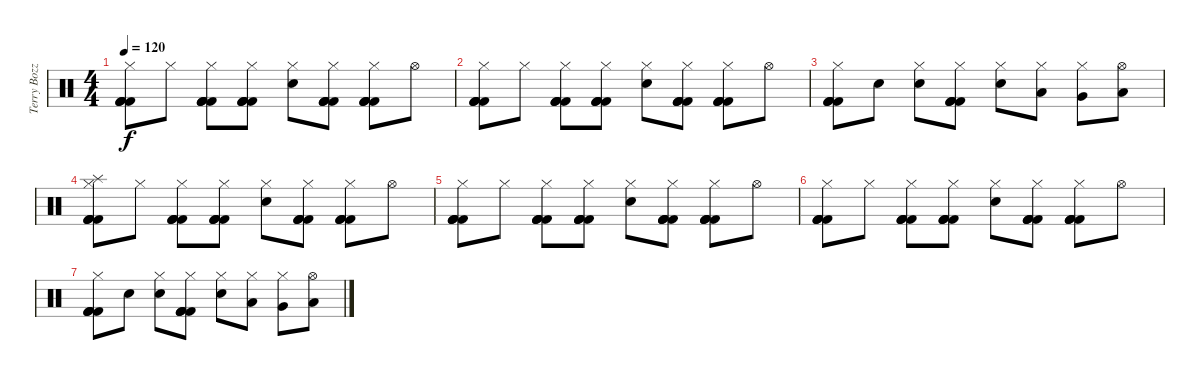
\track ("Terry Bozzio" "Terry Bozz") {instrument percussion}
\staff {score}
\articulation defaults
\ts (4 4)
\tempo 120
\clef neutral
\ks c
("Hi-Hat (closed)" "Kick (hit) 2" "Kick (hit) 2" "Kick (hit) 2" "Kick (hit) 2").8{dy f} "Hi-Hat (closed)".8 ("Hi-Hat (closed)" "Kick (hit) 2" "Kick (hit) 2" "Kick (hit) 2" "Kick (hit) 2").8 ("Hi-Hat (closed)" "Kick (hit) 2" "Kick (hit) 2" "Kick (hit) 2" "Kick (hit) 2").8 ("Hi-Hat (closed)" "Snare (hit) 2").8 ("Hi-Hat (closed)" "Kick (hit) 2" "Kick (hit) 2" "Kick (hit) 2" "Kick (hit) 2").8 ("Hi-Hat (closed)" "Kick (hit) 2" "Kick (hit) 2" "Kick (hit) 2" "Kick (hit) 2").8 "Hi-Hat (open)".8 |
("Hi-Hat (closed)" "Kick (hit) 2" "Kick (hit) 2" "Kick (hit) 2" "Kick (hit) 2").8 "Hi-Hat (closed)".8 ("Hi-Hat (closed)" "Kick (hit) 2" "Kick (hit) 2" "Kick (hit) 2" "Kick (hit) 2").8 ("Hi-Hat (closed)" "Kick (hit) 2" "Kick (hit) 2" "Kick (hit) 2" "Kick (hit) 2").8 ("Hi-Hat (closed)" "Snare (hit) 2").8 ("Hi-Hat (closed)" "Kick (hit) 2" "Kick (hit) 2" "Kick (hit) 2" "Kick (hit) 2").8 ("Hi-Hat (closed)" "Kick (hit) 2" "Kick (hit) 2" "Kick (hit) 2" "Kick (hit) 2").8 "Hi-Hat (open)".8 |
("Hi-Hat (closed)" "Kick (hit) 2" "Kick (hit) 2" "Kick (hit) 2" "Kick (hit) 2").8 "Snare (hit) 2".8 ("Hi-Hat (closed)" "Snare (hit) 2").8 ("Hi-Hat (closed)" "Kick (hit) 2" "Kick (hit) 2" "Kick (hit) 2" "Kick (hit) 2").8 ("Hi-Hat (closed)" "Snare (hit) 2").8 ("Hi-Hat (closed)" "Low Tom (hit)").8 ("Hi-Hat (closed)" "Very Low Tom (hit)").8 ("Hi-Hat (open)" "Low Floor Tom (hit)").8 |
("Splash (hit)" "Hi-Hat (closed)" "Kick (hit) 2" "Kick (hit) 2" "Kick (hit) 2" "Kick (hit) 2").8{volume 16} "Hi-Hat (closed)".8 ("Hi-Hat (closed)" "Kick (hit) 2" "Kick (hit) 2" "Kick (hit) 2" "Kick (hit) 2").8 ("Hi-Hat (closed)" "Kick (hit) 2" "Kick (hit) 2" "Kick (hit) 2" "Kick (hit) 2").8 ("Hi-Hat (closed)" "Snare (hit) 2").8 ("Hi-Hat (closed)" "Kick (hit) 2" "Kick (hit) 2" "Kick (hit) 2" "Kick (hit) 2").8 ("Hi-Hat (closed)" "Kick (hit) 2" "Kick (hit) 2" "Kick (hit) 2" "Kick (hit) 2").8 "Hi-Hat (open)".8 |
("Hi-Hat (closed)" "Kick (hit) 2" "Kick (hit) 2" "Kick (hit) 2" "Kick (hit) 2").8 "Hi-Hat (closed)".8 ("Hi-Hat (closed)" "Kick (hit) 2" "Kick (hit) 2" "Kick (hit) 2" "Kick (hit) 2").8 ("Hi-Hat (closed)" "Kick (hit) 2" "Kick (hit) 2" "Kick (hit) 2" "Kick (hit) 2").8 ("Hi-Hat (closed)" "Snare (hit) 2").8 ("Hi-Hat (closed)" "Kick (hit) 2" "Kick (hit) 2" "Kick (hit) 2" "Kick (hit) 2").8 ("Hi-Hat (closed)" "Kick (hit) 2" "Kick (hit) 2" "Kick (hit) 2" "Kick (hit) 2").8 "Hi-Hat (open)".8 |
("Hi-Hat (closed)" "Kick (hit) 2" "Kick (hit) 2" "Kick (hit) 2" "Kick (hit) 2").8 "Hi-Hat (closed)".8 ("Hi-Hat (closed)" "Kick (hit) 2" "Kick (hit) 2" "Kick (hit) 2" "Kick (hit) 2").8 ("Hi-Hat (closed)" "Kick (hit) 2" "Kick (hit) 2" "Kick (hit) 2" "Kick (hit) 2").8 ("Hi-Hat (closed)" "Snare (hit) 2").8 ("Hi-Hat (closed)" "Kick (hit) 2" "Kick (hit) 2" "Kick (hit) 2" "Kick (hit) 2").8 ("Hi-Hat (closed)" "Kick (hit) 2" "Kick (hit) 2" "Kick (hit) 2" "Kick (hit) 2").8 "Hi-Hat (open)".8 |
("Hi-Hat (closed)" "Kick (hit) 2" "Kick (hit) 2" "Kick (hit) 2" "Kick (hit) 2").8 "Snare (hit) 2".8 ("Hi-Hat (closed)" "Snare (hit) 2").8 ("Hi-Hat (closed)" "Kick (hit) 2" "Kick (hit) 2" "Kick (hit) 2" "Kick (hit) 2").8 ("Hi-Hat (closed)" "Snare (hit) 2").8 ("Hi-Hat (closed)" "Low Tom (hit)").8 ("Hi-Hat (closed)" "Very Low Tom (hit)").8 ("Hi-Hat (open)" "Low Floor Tom (hit)").8
